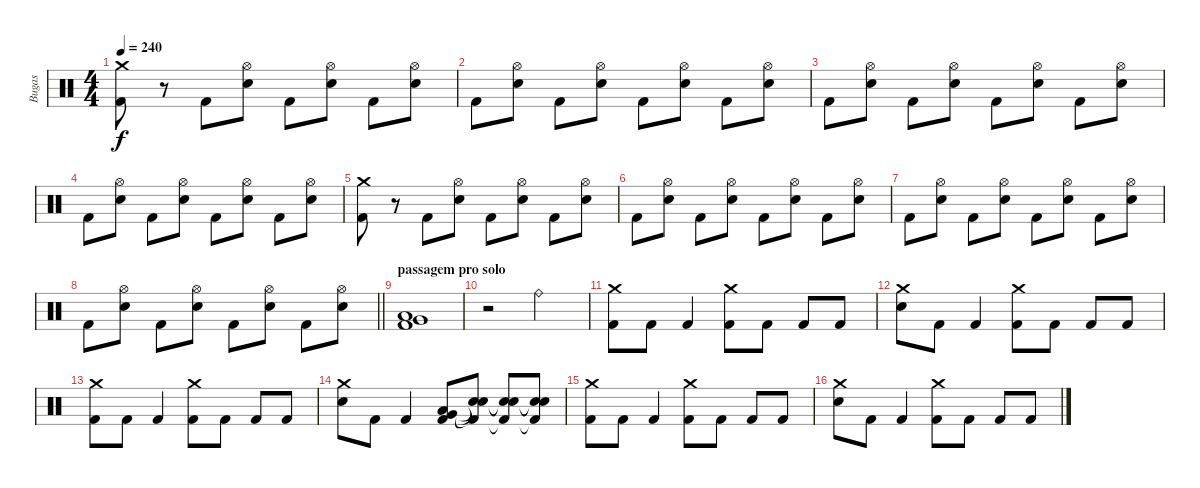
\track ("Bugas" "Bugas") {instrument percussion}
\staff {score}
\articulation defaults
\ts (4 4)
\tempo 240
\clef neutral
\ks c
("Crash medium (hit)" "Kick (hit) 2").8{dy f} r.8 "Kick (hit) 2".8 ("Hi-Hat (open)" "Electric Snare (hit)").8 "Kick (hit) 2".8 ("Hi-Hat (open)" "Electric Snare (hit)").8 "Kick (hit) 2".8 ("Hi-Hat (open)" "Electric Snare (hit)").8 |
"Kick (hit) 2".8 ("Hi-Hat (open)" "Electric Snare (hit)").8 "Kick (hit) 2".8 ("Hi-Hat (open)" "Electric Snare (hit)").8 "Kick (hit) 2".8 ("Hi-Hat (open)" "Electric Snare (hit)").8 "Kick (hit) 2".8 ("Hi-Hat (open)" "Electric Snare (hit)").8 |
"Kick (hit) 2".8 ("Hi-Hat (open)" "Electric Snare (hit)").8 "Kick (hit) 2".8 ("Hi-Hat (open)" "Electric Snare (hit)").8 "Kick (hit) 2".8 ("Hi-Hat (open)" "Electric Snare (hit)").8 "Kick (hit) 2".8 ("Hi-Hat (open)" "Electric Snare (hit)").8 |
"Kick (hit) 2".8 ("Hi-Hat (open)" "Electric Snare (hit)").8 "Kick (hit) 2".8 ("Hi-Hat (open)" "Electric Snare (hit)").8 "Kick (hit) 2".8 ("Hi-Hat (open)" "Electric Snare (hit)").8 "Kick (hit) 2".8 ("Hi-Hat (open)" "Electric Snare (hit)").8 |
("Crash medium (hit)" "Kick (hit) 2").8 r.8 "Kick (hit) 2".8 ("Hi-Hat (open)" "Electric Snare (hit)").8 "Kick (hit) 2".8 ("Hi-Hat (open)" "Electric Snare (hit)").8 "Kick (hit) 2".8 ("Hi-Hat (open)" "Electric Snare (hit)").8 |
"Kick (hit) 2".8 ("Hi-Hat (open)" "Electric Snare (hit)").8 "Kick (hit) 2".8 ("Hi-Hat (open)" "Electric Snare (hit)").8 "Kick (hit) 2".8 ("Hi-Hat (open)" "Electric Snare (hit)").8 "Kick (hit) 2".8 ("Hi-Hat (open)" "Electric Snare (hit)").8 |
"Kick (hit) 2".8 ("Hi-Hat (open)" "Electric Snare (hit)").8 "Kick (hit) 2".8 ("Hi-Hat (open)" "Electric Snare (hit)").8 "Kick (hit) 2".8 ("Hi-Hat (open)" "Electric Snare (hit)").8 "Kick (hit) 2".8 ("Hi-Hat (open)" "Electric Snare (hit)").8 |
\barLineRight lightlight "Kick (hit) 2".8
("Hi-Hat (open)" "Electric Snare (hit)").8 "Kick (hit) 2".8 ("Hi-Hat (open)" "Electric Snare (hit)").8 "Kick (hit) 2".8 ("Hi-Hat (open)" "Electric Snare (hit)").8 "Kick (hit) 2".8 ("Hi-Hat (open)" "Electric Snare (hit)").8 |
\section ("" "passagem pro solo")
("Kick (hit) 2" "Very Low Tom (hit)" "Low Tom (hit)").1 |
r.2 "Ride (bell)".2 |
("Crash medium (hit)" "Kick (hit) 2").8 "Kick (hit) 2".8 "Kick (hit) 2".4 ("Crash medium (hit)" "Kick (hit) 2").8 "Kick (hit) 2".8 "Kick (hit) 2".8 "Kick (hit) 2".8 |
("Crash medium (hit)" "Electric Snare (hit)").8 "Kick (hit) 2".8 "Kick (hit) 2".4 ("Crash medium (hit)" "Kick (hit) 2").8 "Kick (hit) 2".8 "Kick (hit) 2".8 "Kick (hit) 2".8 |
("Crash medium (hit)" "Kick (hit) 2").8 "Kick (hit) 2".8 "Kick (hit) 2".4 ("Crash medium (hit)" "Kick (hit) 2").8 "Kick (hit) 2".8 "Kick (hit) 2".8 "Kick (hit) 2".8 |
("Crash medium (hit)" "Electric Snare (hit)").8 "Kick (hit) 2".8 "Kick (hit) 2".4 ("Kick (hit) 2" "Very Low Tom (hit)" "Low Tom (hit)").8 ("Snare (hit)"{t} "Snare (hit)"{t} "Kick (hit) 2"{t}).8 ("Snare (hit)"{t} "Snare (hit)"{t} "Kick (hit) 2"{t}).8 ("Snare (hit)"{t} "Snare (hit)"{t} "Kick (hit) 2"{t}).8 |
("Crash medium (hit)" "Kick (hit) 2").8 "Kick (hit) 2".8 "Kick (hit) 2".4 ("Crash medium (hit)" "Kick (hit) 2").8 "Kick (hit) 2".8 "Kick (hit) 2".8 "Kick (hit) 2".8 |
("Crash medium (hit)" "Electric Snare (hit)").8 "Kick (hit) 2".8 "Kick (hit) 2".4 ("Crash medium (hit)" "Kick (hit) 2").8 "Kick (hit) 2".8 "Kick (hit) 2".8 "Kick (hit) 2".8
